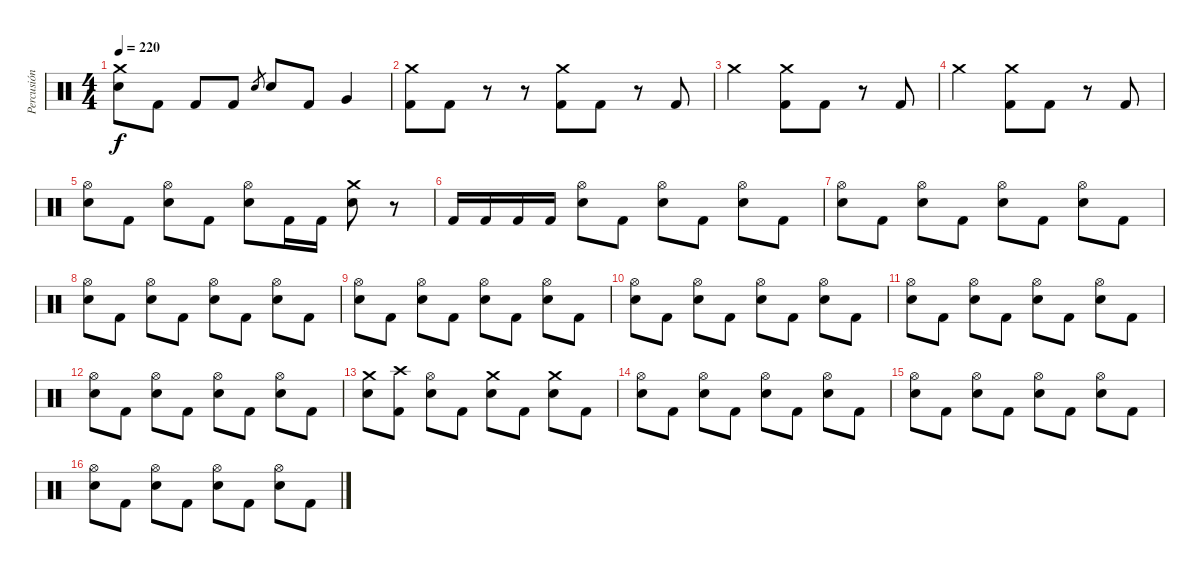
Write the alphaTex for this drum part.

\track ("Percusión" "Percusión") {instrument percussion}
\staff {score}
\articulation defaults
\ts (4 4)
\tempo 220
\clef neutral
\ks c
("Crash medium (hit)" "Electric Snare (hit)").8{dy f} "Kick (hit) 2".8 "Kick (hit) 2".8 "Kick (hit) 2".8 "Electric Snare (hit)".8{gr} "Electric Snare (hit)".8 "Kick (hit) 2".8 "Very Low Tom (hit)".4 |
("Crash medium (hit)" "Kick (hit) 2").8 "Kick (hit) 2".8 r.8 r.8 ("Crash medium (hit)" "Kick (hit) 2").8 "Kick (hit) 2".8 r.8 "Kick (hit) 2".8 |
"Crash medium (hit)".2 ("Crash medium (hit)" "Kick (hit) 2").8 "Kick (hit) 2".8 r.8 "Kick (hit) 2".8 |
"Crash medium (hit)".2 ("Crash medium (hit)" "Kick (hit) 2").8 "Kick (hit) 2".8 r.8 "Kick (hit) 2".8 |
("Hi-Hat (open)" "Electric Snare (hit)").8 "Kick (hit) 2".8 ("Hi-Hat (open)" "Electric Snare (hit)").8 "Kick (hit) 2".8 ("Hi-Hat (open)" "Electric Snare (hit)").8 "Kick (hit) 2".16 "Kick (hit) 2".16 ("Crash medium (hit)" "Electric Snare (hit)").8 r.8 |
"Kick (hit) 2".16 "Kick (hit) 2".16 "Kick (hit) 2".16 "Kick (hit) 2".16 ("Hi-Hat (open)" "Electric Snare (hit)").8 "Kick (hit) 2".8 ("Hi-Hat (open)" "Electric Snare (hit)").8 "Kick (hit) 2".8 ("Hi-Hat (open)" "Electric Snare (hit)").8 "Kick (hit) 2".8 |
("Hi-Hat (open)" "Electric Snare (hit)").8 "Kick (hit) 2".8 ("Hi-Hat (open)" "Electric Snare (hit)").8 "Kick (hit) 2".8 ("Hi-Hat (open)" "Electric Snare (hit)").8 "Kick (hit) 2".8 ("Hi-Hat (open)" "Electric Snare (hit)").8 "Kick (hit) 2".8 |
("Hi-Hat (open)" "Electric Snare (hit)").8 "Kick (hit) 2".8 ("Hi-Hat (open)" "Electric Snare (hit)").8 "Kick (hit) 2".8 ("Hi-Hat (open)" "Electric Snare (hit)").8 "Kick (hit) 2".8 ("Hi-Hat (open)" "Electric Snare (hit)").8 "Kick (hit) 2".8 |
("Hi-Hat (open)" "Electric Snare (hit)").8 "Kick (hit) 2".8 ("Hi-Hat (open)" "Electric Snare (hit)").8 "Kick (hit) 2".8 ("Hi-Hat (open)" "Electric Snare (hit)").8 "Kick (hit) 2".8 ("Hi-Hat (open)" "Electric Snare (hit)").8 "Kick (hit) 2".8 |
("Hi-Hat (open)" "Electric Snare (hit)").8 "Kick (hit) 2".8 ("Hi-Hat (open)" "Electric Snare (hit)").8 "Kick (hit) 2".8 ("Hi-Hat (open)" "Electric Snare (hit)").8 "Kick (hit) 2".8 ("Hi-Hat (open)" "Electric Snare (hit)").8 "Kick (hit) 2".8 |
("Hi-Hat (open)" "Electric Snare (hit)").8 "Kick (hit) 2".8 ("Hi-Hat (open)" "Electric Snare (hit)").8 "Kick (hit) 2".8 ("Hi-Hat (open)" "Electric Snare (hit)").8 "Kick (hit) 2".8 ("Hi-Hat (open)" "Electric Snare (hit)").8 "Kick (hit) 2".8 |
("Hi-Hat (open)" "Electric Snare (hit)").8 "Kick (hit) 2".8 ("Hi-Hat (open)" "Electric Snare (hit)").8 "Kick (hit) 2".8 ("Hi-Hat (open)" "Electric Snare (hit)").8 "Kick (hit) 2".8 ("Hi-Hat (open)" "Electric Snare (hit)").8 "Kick (hit) 2".8 |
("Crash medium (hit)" "Electric Snare (hit)").8 ("Crash high (hit)" "Kick (hit) 2").8 ("Hi-Hat (open)" "Electric Snare (hit)").8 "Kick (hit) 2".8 ("Crash medium (hit)" "Electric Snare (hit)").8 "Kick (hit) 2".8 ("Crash medium (hit)" "Electric Snare (hit)").8 "Kick (hit) 2".8 |
("Hi-Hat (open)" "Electric Snare (hit)").8 "Kick (hit) 2".8 ("Hi-Hat (open)" "Electric Snare (hit)").8 "Kick (hit) 2".8 ("Hi-Hat (open)" "Electric Snare (hit)").8 "Kick (hit) 2".8 ("Hi-Hat (open)" "Electric Snare (hit)").8 "Kick (hit) 2".8 |
("Hi-Hat (open)" "Electric Snare (hit)").8 "Kick (hit) 2".8 ("Hi-Hat (open)" "Electric Snare (hit)").8 "Kick (hit) 2".8 ("Hi-Hat (open)" "Electric Snare (hit)").8 "Kick (hit) 2".8 ("Hi-Hat (open)" "Electric Snare (hit)").8 "Kick (hit) 2".8 |
("Hi-Hat (open)" "Electric Snare (hit)").8 "Kick (hit) 2".8 ("Hi-Hat (open)" "Electric Snare (hit)").8 "Kick (hit) 2".8 ("Hi-Hat (open)" "Electric Snare (hit)").8 "Kick (hit) 2".8 ("Hi-Hat (open)" "Electric Snare (hit)").8 "Kick (hit) 2".8
